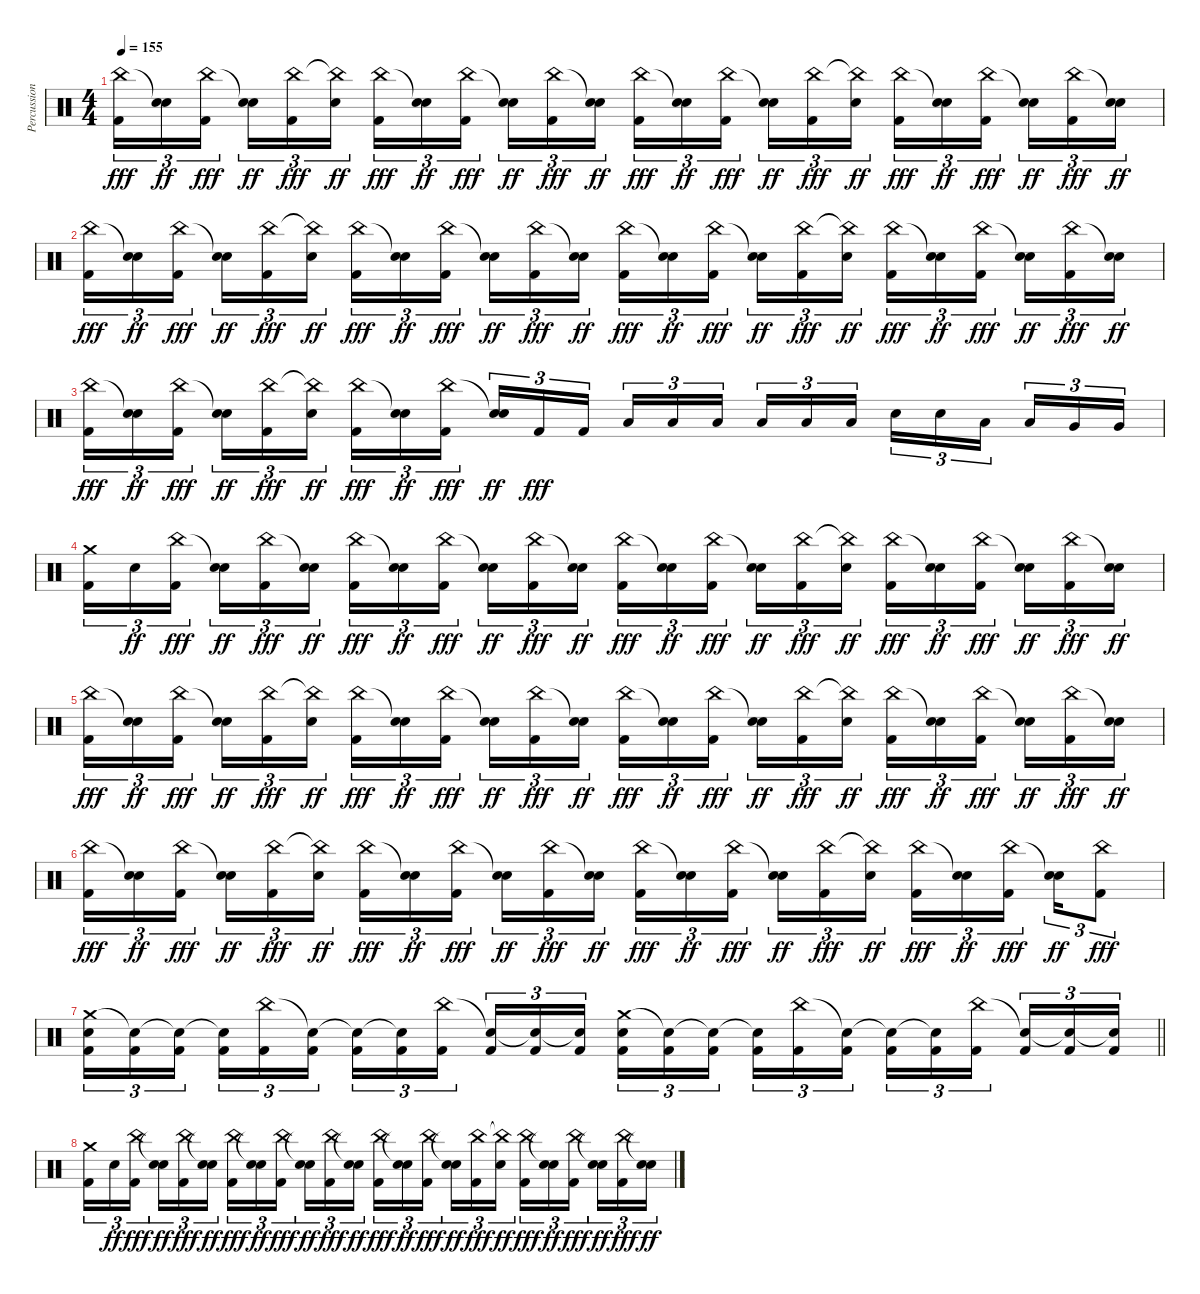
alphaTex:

\track ("Percussion" "Percussion") {instrument percussion}
\staff {score}
\articulation defaults
\ts (4 4)
\tempo 155
\clef neutral
\ks c
("China (hit)" "Kick (hit) 2").16{tu (3 2) dy fff} ("Snare (hit)"{t} "Electric Snare (hit)").16{tu (3 2) dy ff} ("China (hit)" "Kick (hit) 2").16{tu (3 2) dy fff beam splitsecondary} ("Snare (hit)"{t} "Electric Snare (hit)").16{tu (3 2) dy ff} ("China (hit)" "Kick (hit) 2").16{tu (3 2) dy fff} ("China (hit)"{t} "Electric Snare (hit)").16{tu (3 2) dy ff} ("China (hit)" "Kick (hit) 2").16{tu (3 2) dy fff} ("Snare (hit)"{t} "Electric Snare (hit)").16{tu (3 2) dy ff} ("China (hit)" "Kick (hit) 2").16{tu (3 2) dy fff beam splitsecondary} ("Snare (hit)"{t} "Electric Snare (hit)").16{tu (3 2) dy ff} ("China (hit)" "Kick (hit) 2").16{tu (3 2) dy fff} ("Snare (hit)"{t} "Electric Snare (hit)").16{tu (3 2) dy ff} ("China (hit)" "Kick (hit) 2").16{tu (3 2) dy fff} ("Snare (hit)"{t} "Electric Snare (hit)").16{tu (3 2) dy ff} ("China (hit)" "Kick (hit) 2").16{tu (3 2) dy fff beam splitsecondary} ("Snare (hit)"{t} "Electric Snare (hit)").16{tu (3 2) dy ff} ("China (hit)" "Kick (hit) 2").16{tu (3 2) dy fff} ("China (hit)"{t} "Electric Snare (hit)").16{tu (3 2) dy ff} ("China (hit)" "Kick (hit) 2").16{tu (3 2) dy fff} ("Snare (hit)"{t} "Electric Snare (hit)").16{tu (3 2) dy ff} ("China (hit)" "Kick (hit) 2").16{tu (3 2) dy fff beam splitsecondary} ("Snare (hit)"{t} "Electric Snare (hit)").16{tu (3 2) dy ff} ("China (hit)" "Kick (hit) 2").16{tu (3 2) dy fff} ("Snare (hit)"{t} "Electric Snare (hit)").16{tu (3 2) dy ff} |
("China (hit)" "Kick (hit) 2").16{tu (3 2) dy fff} ("Snare (hit)"{t} "Electric Snare (hit)").16{tu (3 2) dy ff} ("China (hit)" "Kick (hit) 2").16{tu (3 2) dy fff beam splitsecondary} ("Snare (hit)"{t} "Electric Snare (hit)").16{tu (3 2) dy ff} ("China (hit)" "Kick (hit) 2").16{tu (3 2) dy fff} ("China (hit)"{t} "Electric Snare (hit)").16{tu (3 2) dy ff} ("China (hit)" "Kick (hit) 2").16{tu (3 2) dy fff} ("Snare (hit)"{t} "Electric Snare (hit)").16{tu (3 2) dy ff} ("China (hit)" "Kick (hit) 2").16{tu (3 2) dy fff beam splitsecondary} ("Snare (hit)"{t} "Electric Snare (hit)").16{tu (3 2) dy ff} ("China (hit)" "Kick (hit) 2").16{tu (3 2) dy fff} ("Snare (hit)"{t} "Electric Snare (hit)").16{tu (3 2) dy ff} ("China (hit)" "Kick (hit) 2").16{tu (3 2) dy fff} ("Snare (hit)"{t} "Electric Snare (hit)").16{tu (3 2) dy ff} ("China (hit)" "Kick (hit) 2").16{tu (3 2) dy fff beam splitsecondary} ("Snare (hit)"{t} "Electric Snare (hit)").16{tu (3 2) dy ff} ("China (hit)" "Kick (hit) 2").16{tu (3 2) dy fff} ("China (hit)"{t} "Electric Snare (hit)").16{tu (3 2) dy ff} ("China (hit)" "Kick (hit) 2").16{tu (3 2) dy fff} ("Snare (hit)"{t} "Electric Snare (hit)").16{tu (3 2) dy ff} ("China (hit)" "Kick (hit) 2").16{tu (3 2) dy fff beam splitsecondary} ("Snare (hit)"{t} "Electric Snare (hit)").16{tu (3 2) dy ff} ("China (hit)" "Kick (hit) 2").16{tu (3 2) dy fff} ("Snare (hit)"{t} "Electric Snare (hit)").16{tu (3 2) dy ff} |
("China (hit)" "Kick (hit) 2").16{tu (3 2) dy fff} ("Snare (hit)"{t} "Electric Snare (hit)").16{tu (3 2) dy ff} ("China (hit)" "Kick (hit) 2").16{tu (3 2) dy fff beam splitsecondary} ("Snare (hit)"{t} "Electric Snare (hit)").16{tu (3 2) dy ff} ("China (hit)" "Kick (hit) 2").16{tu (3 2) dy fff} ("China (hit)"{t} "Electric Snare (hit)").16{tu (3 2) dy ff} ("China (hit)" "Kick (hit) 2").16{tu (3 2) dy fff} ("Snare (hit)"{t} "Electric Snare (hit)").16{tu (3 2) dy ff} ("China (hit)" "Kick (hit) 2").16{tu (3 2) dy fff beam splitsecondary} ("Snare (hit)"{t} "Electric Snare (hit)").16{tu (3 2) dy ff} "Kick (hit) 2".16{tu (3 2) dy fff} "Kick (hit) 2".16{tu (3 2)} "Low Tom (hit)".16{tu (3 2)} "Low Tom (hit)".16{tu (3 2)} "Low Tom (hit)".16{tu (3 2) beam splitsecondary} "Low Tom (hit)".16{tu (3 2)} "Low Tom (hit)".16{tu (3 2)} "Low Tom (hit)".16{tu (3 2)} "Electric Snare (hit)".16{tu (3 2)} "Electric Snare (hit)".16{tu (3 2)} "Low Tom (hit)".16{tu (3 2) beam splitsecondary} "Low Tom (hit)".16{tu (3 2)} "Very Low Tom (hit)".16{tu (3 2)} "Very Low Tom (hit)".16{tu (3 2)} |
("Crash medium (hit)" "Kick (hit) 2").16{tu (3 2)} "Electric Snare (hit)".16{tu (3 2) dy ff} ("China (hit)" "Kick (hit) 2").16{tu (3 2) dy fff beam splitsecondary} ("Snare (hit)"{t} "Electric Snare (hit)").16{tu (3 2) dy ff} ("China (hit)" "Kick (hit) 2").16{tu (3 2) dy fff} ("Snare (hit)"{t} "Electric Snare (hit)").16{tu (3 2) dy ff} ("China (hit)" "Kick (hit) 2").16{tu (3 2) dy fff} ("Snare (hit)"{t} "Electric Snare (hit)").16{tu (3 2) dy ff} ("China (hit)" "Kick (hit) 2").16{tu (3 2) dy fff beam splitsecondary} ("Snare (hit)"{t} "Electric Snare (hit)").16{tu (3 2) dy ff} ("China (hit)" "Kick (hit) 2").16{tu (3 2) dy fff} ("Snare (hit)"{t} "Electric Snare (hit)").16{tu (3 2) dy ff} ("China (hit)" "Kick (hit) 2").16{tu (3 2) dy fff} ("Snare (hit)"{t} "Electric Snare (hit)").16{tu (3 2) dy ff} ("China (hit)" "Kick (hit) 2").16{tu (3 2) dy fff beam splitsecondary} ("Snare (hit)"{t} "Electric Snare (hit)").16{tu (3 2) dy ff} ("China (hit)" "Kick (hit) 2").16{tu (3 2) dy fff} ("China (hit)"{t} "Electric Snare (hit)").16{tu (3 2) dy ff} ("China (hit)" "Kick (hit) 2").16{tu (3 2) dy fff} ("Snare (hit)"{t} "Electric Snare (hit)").16{tu (3 2) dy ff} ("China (hit)" "Kick (hit) 2").16{tu (3 2) dy fff beam splitsecondary} ("Snare (hit)"{t} "Electric Snare (hit)").16{tu (3 2) dy ff} ("China (hit)" "Kick (hit) 2").16{tu (3 2) dy fff} ("Snare (hit)"{t} "Electric Snare (hit)").16{tu (3 2) dy ff} |
("China (hit)" "Kick (hit) 2").16{tu (3 2) dy fff} ("Snare (hit)"{t} "Electric Snare (hit)").16{tu (3 2) dy ff} ("China (hit)" "Kick (hit) 2").16{tu (3 2) dy fff beam splitsecondary} ("Snare (hit)"{t} "Electric Snare (hit)").16{tu (3 2) dy ff} ("China (hit)" "Kick (hit) 2").16{tu (3 2) dy fff} ("China (hit)"{t} "Electric Snare (hit)").16{tu (3 2) dy ff} ("China (hit)" "Kick (hit) 2").16{tu (3 2) dy fff} ("Snare (hit)"{t} "Electric Snare (hit)").16{tu (3 2) dy ff} ("China (hit)" "Kick (hit) 2").16{tu (3 2) dy fff beam splitsecondary} ("Snare (hit)"{t} "Electric Snare (hit)").16{tu (3 2) dy ff} ("China (hit)" "Kick (hit) 2").16{tu (3 2) dy fff} ("Snare (hit)"{t} "Electric Snare (hit)").16{tu (3 2) dy ff} ("China (hit)" "Kick (hit) 2").16{tu (3 2) dy fff} ("Snare (hit)"{t} "Electric Snare (hit)").16{tu (3 2) dy ff} ("China (hit)" "Kick (hit) 2").16{tu (3 2) dy fff beam splitsecondary} ("Snare (hit)"{t} "Electric Snare (hit)").16{tu (3 2) dy ff} ("China (hit)" "Kick (hit) 2").16{tu (3 2) dy fff} ("China (hit)"{t} "Electric Snare (hit)").16{tu (3 2) dy ff} ("China (hit)" "Kick (hit) 2").16{tu (3 2) dy fff} ("Snare (hit)"{t} "Electric Snare (hit)").16{tu (3 2) dy ff} ("China (hit)" "Kick (hit) 2").16{tu (3 2) dy fff beam splitsecondary} ("Snare (hit)"{t} "Electric Snare (hit)").16{tu (3 2) dy ff} ("China (hit)" "Kick (hit) 2").16{tu (3 2) dy fff} ("Snare (hit)"{t} "Electric Snare (hit)").16{tu (3 2) dy ff} |
("China (hit)" "Kick (hit) 2").16{tu (3 2) dy fff} ("Snare (hit)"{t} "Electric Snare (hit)").16{tu (3 2) dy ff} ("China (hit)" "Kick (hit) 2").16{tu (3 2) dy fff beam splitsecondary} ("Snare (hit)"{t} "Electric Snare (hit)").16{tu (3 2) dy ff} ("China (hit)" "Kick (hit) 2").16{tu (3 2) dy fff} ("China (hit)"{t} "Electric Snare (hit)").16{tu (3 2) dy ff} ("China (hit)" "Kick (hit) 2").16{tu (3 2) dy fff} ("Snare (hit)"{t} "Electric Snare (hit)").16{tu (3 2) dy ff} ("China (hit)" "Kick (hit) 2").16{tu (3 2) dy fff beam splitsecondary} ("Snare (hit)"{t} "Electric Snare (hit)").16{tu (3 2) dy ff} ("China (hit)" "Kick (hit) 2").16{tu (3 2) dy fff} ("Snare (hit)"{t} "Electric Snare (hit)").16{tu (3 2) dy ff} ("China (hit)" "Kick (hit) 2").16{tu (3 2) dy fff} ("Snare (hit)"{t} "Electric Snare (hit)").16{tu (3 2) dy ff} ("China (hit)" "Kick (hit) 2").16{tu (3 2) dy fff beam splitsecondary} ("Snare (hit)"{t} "Electric Snare (hit)").16{tu (3 2) dy ff} ("China (hit)" "Kick (hit) 2").16{tu (3 2) dy fff} ("China (hit)"{t} "Electric Snare (hit)").16{tu (3 2) dy ff} ("China (hit)" "Kick (hit) 2").16{tu (3 2) dy fff} ("Snare (hit)"{t} "Electric Snare (hit)").16{tu (3 2) dy ff} ("China (hit)" "Kick (hit) 2").16{tu (3 2) dy fff beam splitsecondary} ("Snare (hit)"{t} "Electric Snare (hit)").16{tu (3 2) dy ff} ("China (hit)" "Kick (hit) 2").8{tu (3 2) dy fff} |
\barLineRight lightlight
("Crash medium (hit)" "Electric Snare (hit)" "Kick (hit) 2").16{tu (3 2)} ("Snare (hit)"{t} "Kick (hit) 2").16{tu (3 2)} ("Snare (hit)"{t} "Kick (hit) 2").16{tu (3 2) beam splitsecondary} ("Snare (hit)"{t} "Kick (hit) 2").16{tu (3 2)} ("China (hit)" "Kick (hit) 2").16{tu (3 2)} ("Snare (hit)"{t} "Kick (hit) 2").16{tu (3 2)} ("Snare (hit)"{t} "Kick (hit) 2").16{tu (3 2)} ("Snare (hit)"{t} "Kick (hit) 2").16{tu (3 2)} ("China (hit)" "Kick (hit) 2").16{tu (3 2) beam splitsecondary} ("Snare (hit)"{t} "Kick (hit) 2").16{tu (3 2)} ("Snare (hit)"{t} "Kick (hit) 2").16{tu (3 2)} ("Snare (hit)"{t} "Kick (hit) 2").16{tu (3 2)} ("Crash medium (hit)" "Electric Snare (hit)" "Kick (hit) 2").16{tu (3 2)} ("Snare (hit)"{t} "Kick (hit) 2").16{tu (3 2)} ("Snare (hit)"{t} "Kick (hit) 2").16{tu (3 2) beam splitsecondary} ("Snare (hit)"{t} "Kick (hit) 2").16{tu (3 2)} ("China (hit)" "Kick (hit) 2").16{tu (3 2)} ("Snare (hit)"{t} "Kick (hit) 2").16{tu (3 2)} ("Snare (hit)"{t} "Kick (hit) 2").16{tu (3 2)} ("Snare (hit)"{t} "Kick (hit) 2").16{tu (3 2)} ("China (hit)" "Kick (hit) 2").16{tu (3 2) beam splitsecondary} ("Snare (hit)"{t} "Kick (hit) 2").16{tu (3 2)} ("Snare (hit)"{t} "Kick (hit) 2").16{tu (3 2)} ("Snare (hit)"{t} "Kick (hit) 2").16{tu (3 2)} |
\section ("" "")
("Crash medium (hit)" "Kick (hit) 2").16{tu (3 2)} "Electric Snare (hit)".16{tu (3 2) dy ff} ("China (hit)" "Kick (hit) 2").16{tu (3 2) dy fff beam splitsecondary} ("Snare (hit)"{t} "Electric Snare (hit)").16{tu (3 2) dy ff} ("China (hit)" "Kick (hit) 2").16{tu (3 2) dy fff} ("Snare (hit)"{t} "Electric Snare (hit)").16{tu (3 2) dy ff} ("China (hit)" "Kick (hit) 2").16{tu (3 2) dy fff} ("Snare (hit)"{t} "Electric Snare (hit)").16{tu (3 2) dy ff} ("China (hit)" "Kick (hit) 2").16{tu (3 2) dy fff beam splitsecondary} ("Snare (hit)"{t} "Electric Snare (hit)").16{tu (3 2) dy ff} ("China (hit)" "Kick (hit) 2").16{tu (3 2) dy fff} ("Snare (hit)"{t} "Electric Snare (hit)").16{tu (3 2) dy ff} ("China (hit)" "Kick (hit) 2").16{tu (3 2) dy fff} ("Snare (hit)"{t} "Electric Snare (hit)").16{tu (3 2) dy ff} ("China (hit)" "Kick (hit) 2").16{tu (3 2) dy fff beam splitsecondary} ("Snare (hit)"{t} "Electric Snare (hit)").16{tu (3 2) dy ff} ("China (hit)" "Kick (hit) 2").16{tu (3 2) dy fff} ("China (hit)"{t} "Electric Snare (hit)").16{tu (3 2) dy ff} ("China (hit)" "Kick (hit) 2").16{tu (3 2) dy fff} ("Snare (hit)"{t} "Electric Snare (hit)").16{tu (3 2) dy ff} ("China (hit)" "Kick (hit) 2").16{tu (3 2) dy fff beam splitsecondary} ("Snare (hit)"{t} "Electric Snare (hit)").16{tu (3 2) dy ff} ("China (hit)" "Kick (hit) 2").16{tu (3 2) dy fff} ("Snare (hit)"{t} "Electric Snare (hit)").16{tu (3 2) dy ff}
